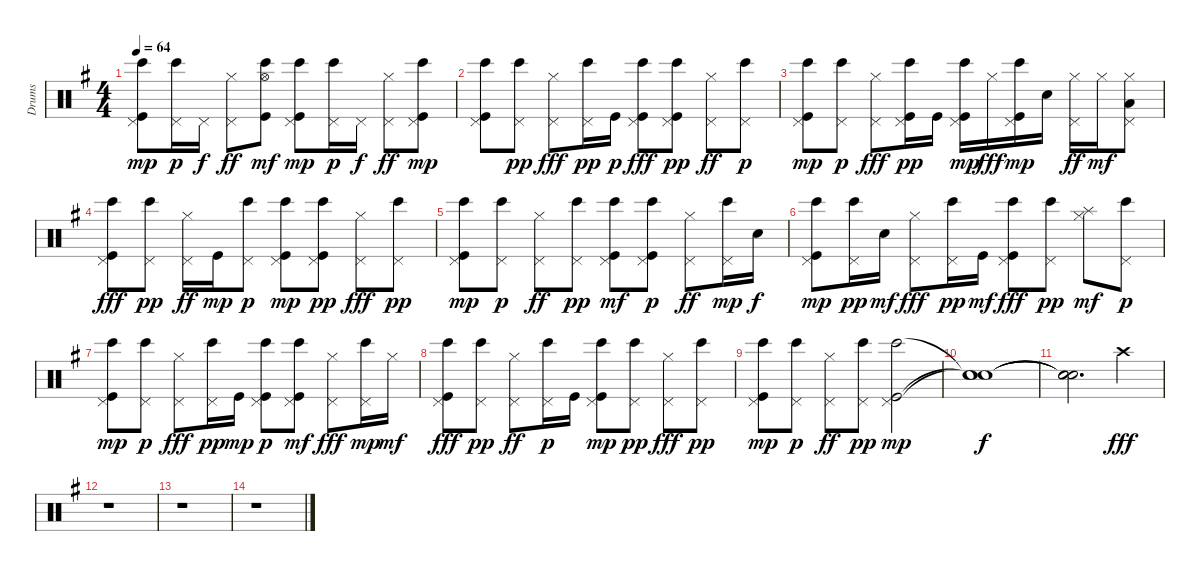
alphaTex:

\track ("Drums" "Drums") {instrument percussion}
\staff {score}
\articulation defaults
\ts (4 4)
\tempo 64
\clef neutral
\ks g
("Bongo High (hit)" "Kick (hit)" "Pedal Hi-Hat (hit)").8{dy mp} ("Bongo High (hit)" "Pedal Hi-Hat (hit)").16{dy p} "Pedal Hi-Hat (hit)".16{dy f} ("Hi-Hat (closed)" "Pedal Hi-Hat (hit)").8{dy ff} ("Bongo High (hit)" "Kick (hit)" "Hi-Hat (open)").8{dy mf} ("Bongo High (hit)" "Kick (hit)" "Pedal Hi-Hat (hit)").8{dy mp} ("Bongo High (hit)" "Pedal Hi-Hat (hit)").16{dy p} "Pedal Hi-Hat (hit)".16{dy f} ("Hi-Hat (closed)" "Pedal Hi-Hat (hit)").8{dy ff} ("Bongo High (hit)" "Kick (hit)" "Pedal Hi-Hat (hit)").8{dy mp} |
("Bongo High (hit)" "Kick (hit)" "Pedal Hi-Hat (hit)").8 ("Bongo High (hit)" "Pedal Hi-Hat (hit)").8{dy pp} ("Hi-Hat (closed)" "Pedal Hi-Hat (hit)").8{dy fff} ("Bongo High (hit)" "Pedal Hi-Hat (hit)").16{dy pp} "Kick (hit)".16{dy p} ("Bongo High (hit)" "Kick (hit)" "Pedal Hi-Hat (hit)").8{dy fff} ("Bongo High (hit)" "Kick (hit)" "Pedal Hi-Hat (hit)").8{dy pp} ("Hi-Hat (closed)" "Pedal Hi-Hat (hit)").8{dy ff} ("Bongo High (hit)" "Pedal Hi-Hat (hit)").8{dy p} |
("Bongo High (hit)" "Kick (hit)" "Pedal Hi-Hat (hit)").8{dy mp} ("Bongo High (hit)" "Pedal Hi-Hat (hit)").8{dy p} ("Hi-Hat (closed)" "Pedal Hi-Hat (hit)").8{dy fff} ("Bongo High (hit)" "Kick (hit)" "Pedal Hi-Hat (hit)").16{dy pp} "Kick (hit)".16 ("Bongo High (hit)" "Kick (hit)" "Pedal Hi-Hat (hit)").16{dy mp} "Hi-Hat (closed)".16{dy fff} ("Bongo High (hit)" "Kick (hit)" "Pedal Hi-Hat (hit)").16{dy mp} "Snare (hit)".16 ("Hi-Hat (closed)" "Pedal Hi-Hat (hit)").16{dy ff} "Hi-Hat (closed)".16{dy mf} ("Hi-Hat (closed)" "Pedal Hi-Hat (hit)" "Low Tom (hit)").8 |
("Bongo High (hit)" "Kick (hit)" "Pedal Hi-Hat (hit)").8{dy fff} ("Bongo High (hit)" "Pedal Hi-Hat (hit)").8{dy pp} ("Hi-Hat (closed)" "Pedal Hi-Hat (hit)").16{dy ff} "Kick (hit)".16{dy mp} ("Bongo High (hit)" "Pedal Hi-Hat (hit)").8{dy p} ("Bongo High (hit)" "Kick (hit)" "Pedal Hi-Hat (hit)").8{dy mp} ("Bongo High (hit)" "Kick (hit)" "Pedal Hi-Hat (hit)").8{dy pp} ("Hi-Hat (closed)" "Pedal Hi-Hat (hit)").8{dy fff} ("Bongo High (hit)" "Pedal Hi-Hat (hit)").8{dy pp} |
("Bongo High (hit)" "Kick (hit)" "Pedal Hi-Hat (hit)").8{dy mp} ("Bongo High (hit)" "Pedal Hi-Hat (hit)").8{dy p} ("Hi-Hat (closed)" "Pedal Hi-Hat (hit)").8{dy ff} ("Bongo High (hit)" "Pedal Hi-Hat (hit)").8{dy pp} ("Bongo High (hit)" "Kick (hit)" "Pedal Hi-Hat (hit)").8{dy mf} ("Bongo High (hit)" "Kick (hit)" "Pedal Hi-Hat (hit)").8{dy p} ("Hi-Hat (closed)" "Pedal Hi-Hat (hit)").8{dy ff} ("Bongo High (hit)" "Pedal Hi-Hat (hit)").16{dy mp} "Snare (hit)".16{dy f} |
("Bongo High (hit)" "Kick (hit)" "Pedal Hi-Hat (hit)").8{dy mp} ("Bongo High (hit)" "Pedal Hi-Hat (hit)").16{dy pp} "Snare (hit)".16{dy mf} ("Hi-Hat (closed)" "Pedal Hi-Hat (hit)").8{dy fff} ("Bongo High (hit)" "Pedal Hi-Hat (hit)").16{dy pp} "Kick (hit)".16{dy mf} ("Bongo High (hit)" "Kick (hit)" "Pedal Hi-Hat (hit)").8{dy fff} ("Bongo High (hit)" "Pedal Hi-Hat (hit)").8{dy pp} ("Hi-Hat (closed)" "Splash (hit)").8{dy mf} ("Bongo High (hit)" "Pedal Hi-Hat (hit)").8{dy p} |
("Bongo High (hit)" "Kick (hit)" "Pedal Hi-Hat (hit)").8{dy mp} ("Bongo High (hit)" "Pedal Hi-Hat (hit)").8{dy p} ("Hi-Hat (closed)" "Pedal Hi-Hat (hit)").8{dy fff} ("Bongo High (hit)" "Pedal Hi-Hat (hit)").16{dy pp} "Kick (hit)".16{dy mp} ("Bongo High (hit)" "Kick (hit)" "Pedal Hi-Hat (hit)").8{dy p} ("Bongo High (hit)" "Kick (hit)" "Pedal Hi-Hat (hit)").8{dy mf} ("Hi-Hat (closed)" "Pedal Hi-Hat (hit)").8{dy fff} ("Bongo High (hit)" "Pedal Hi-Hat (hit)").16{dy mp} "Hi-Hat (closed)".16{dy mf} |
("Bongo High (hit)" "Kick (hit)" "Pedal Hi-Hat (hit)").8{dy fff} ("Bongo High (hit)" "Pedal Hi-Hat (hit)").8{dy pp} ("Hi-Hat (closed)" "Pedal Hi-Hat (hit)").8{dy ff} ("Bongo High (hit)" "Pedal Hi-Hat (hit)").16{dy p} "Kick (hit)".16 ("Bongo High (hit)" "Kick (hit)" "Pedal Hi-Hat (hit)").8{dy mp} ("Bongo High (hit)" "Pedal Hi-Hat (hit)").8{dy pp} ("Hi-Hat (closed)" "Pedal Hi-Hat (hit)").8{dy fff} ("Bongo High (hit)" "Pedal Hi-Hat (hit)").8{dy pp} |
("Bongo High (hit)" "Kick (hit)" "Pedal Hi-Hat (hit)").8{dy mp} ("Bongo High (hit)" "Pedal Hi-Hat (hit)").8{dy p} ("Hi-Hat (closed)" "Pedal Hi-Hat (hit)").8{dy ff} ("Bongo High (hit)" "Pedal Hi-Hat (hit)").8{dy pp} ("Bongo High (hit)" "Kick (hit)" "Pedal Hi-Hat (hit)").2{dy mp} |
("Snare (hit)"{t} "Snare (hit)"{t} "Snare (hit)"{t}).1{dy f} |
("Snare (hit)"{t} "Snare (hit)"{t} "Snare (hit)"{t}).2{d} "Crash high (hit)".4{dy fff} |
r.1 |
r.1 |
r.1
